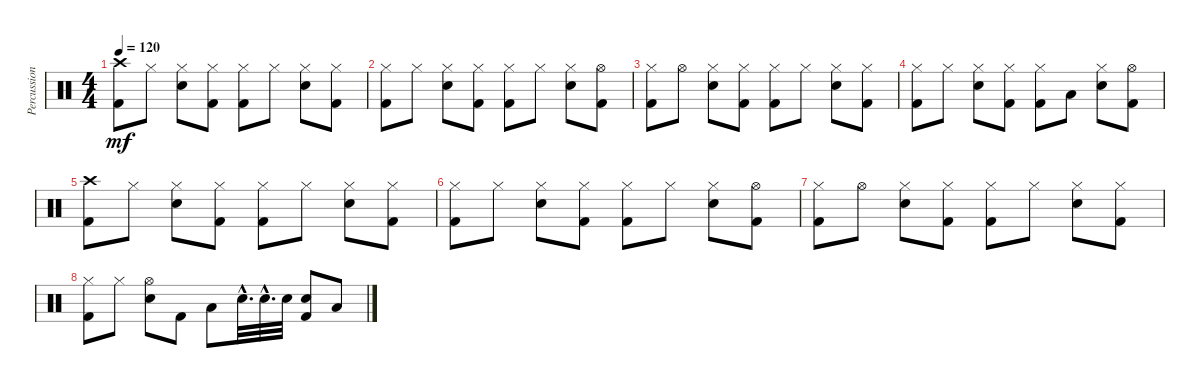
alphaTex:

\track ("Percussion" "Percussion") {instrument percussion}
\staff {score}
\articulation defaults
\ts (4 4)
\tempo 120
\clef neutral
\ks c
("Kick (hit) 2" "Crash high (hit)").8{dy mf} "Hi-Hat (closed)".8 ("Hi-Hat (closed)" "Snare (hit) 2").8 ("Hi-Hat (closed)" "Kick (hit) 2").8 ("Kick (hit) 2" "Hi-Hat (closed)").8 "Hi-Hat (closed)".8 ("Snare (hit) 2" "Hi-Hat (closed)").8 ("Kick (hit) 2" "Hi-Hat (closed)").8 |
("Kick (hit) 2" "Hi-Hat (closed)").8 "Hi-Hat (closed)".8 ("Hi-Hat (closed)" "Snare (hit) 2").8 ("Hi-Hat (closed)" "Kick (hit) 2").8 ("Kick (hit) 2" "Hi-Hat (closed)").8 "Hi-Hat (closed)".8 ("Snare (hit) 2" "Hi-Hat (closed)").8 ("Hi-Hat (open)" "Kick (hit) 2").8 |
("Kick (hit) 2" "Hi-Hat (closed)").8 "Hi-Hat (open)".8 ("Hi-Hat (closed)" "Snare (hit) 2").8 ("Hi-Hat (closed)" "Kick (hit) 2").8 ("Kick (hit) 2" "Hi-Hat (closed)").8 "Hi-Hat (closed)".8 ("Snare (hit) 2" "Hi-Hat (closed)").8 ("Kick (hit) 2" "Hi-Hat (closed)").8 |
("Kick (hit) 2" "Hi-Hat (closed)").8 "Hi-Hat (closed)".8 ("Hi-Hat (closed)" "Snare (hit) 2").8 ("Hi-Hat (closed)" "Kick (hit) 2").8 ("Kick (hit) 2" "Hi-Hat (closed)").8 "Low Floor Tom (hit)".8 ("Snare (hit) 2" "Hi-Hat (closed)").8 ("Hi-Hat (open)" "Kick (hit) 2").8 |
("Kick (hit) 2" "Crash high (hit)").8 "Hi-Hat (closed)".8 ("Hi-Hat (closed)" "Snare (hit) 2").8 ("Hi-Hat (closed)" "Kick (hit) 2").8 ("Kick (hit) 2" "Hi-Hat (closed)").8 "Hi-Hat (closed)".8 ("Snare (hit) 2" "Hi-Hat (closed)").8 ("Kick (hit) 2" "Hi-Hat (closed)").8 |
("Kick (hit) 2" "Hi-Hat (closed)").8 "Hi-Hat (closed)".8 ("Hi-Hat (closed)" "Snare (hit) 2").8 ("Hi-Hat (closed)" "Kick (hit) 2").8 ("Kick (hit) 2" "Hi-Hat (closed)").8 "Hi-Hat (closed)".8 ("Snare (hit) 2" "Hi-Hat (closed)").8 ("Hi-Hat (open)" "Kick (hit) 2").8 |
("Kick (hit) 2" "Hi-Hat (closed)").8 "Hi-Hat (open)".8 ("Hi-Hat (closed)" "Snare (hit) 2").8 ("Hi-Hat (closed)" "Kick (hit) 2").8 ("Kick (hit) 2" "Hi-Hat (closed)").8 "Hi-Hat (closed)".8 ("Snare (hit) 2" "Hi-Hat (closed)").8 ("Kick (hit) 2" "Hi-Hat (closed)").8 |
("Kick (hit) 2" "Hi-Hat (closed)").8 "Hi-Hat (closed)".8 ("Hi-Hat (open)" "Snare (hit) 2").8 "Kick (hit) 2".8 "Low Tom (hit)".8 "Snare (hit) 2"{hac}.32{d} "Snare (hit) 2"{hac}.32{d} "Snare (hit) 2".32 ("Snare (hit) 2" "Kick (hit) 2").8 "Low Floor Tom (hit)".8
